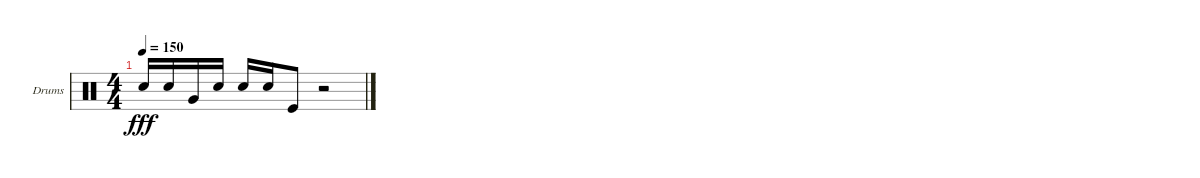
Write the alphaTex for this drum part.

\defaultSystemsLayout 4
\bracketExtendMode groupsimilarinstruments
\firstSystemTrackNameOrientation horizontal
\otherSystemsTrackNameOrientation horizontal
\track ("Helders" "Drums") {instrument percussion}
\staff {score}
\articulation defaults
\ts (4 4)
\tempo 150
\clef neutral
\ks c "Snare (hit) 2".16{dy fff} "Snare (hit) 2".16 "Very Low Tom (hit)".16 "Snare (hit) 2".16 "Snare (hit) 2".16 "Snare (hit) 2".16 "Kick (hit)".8
r.2
